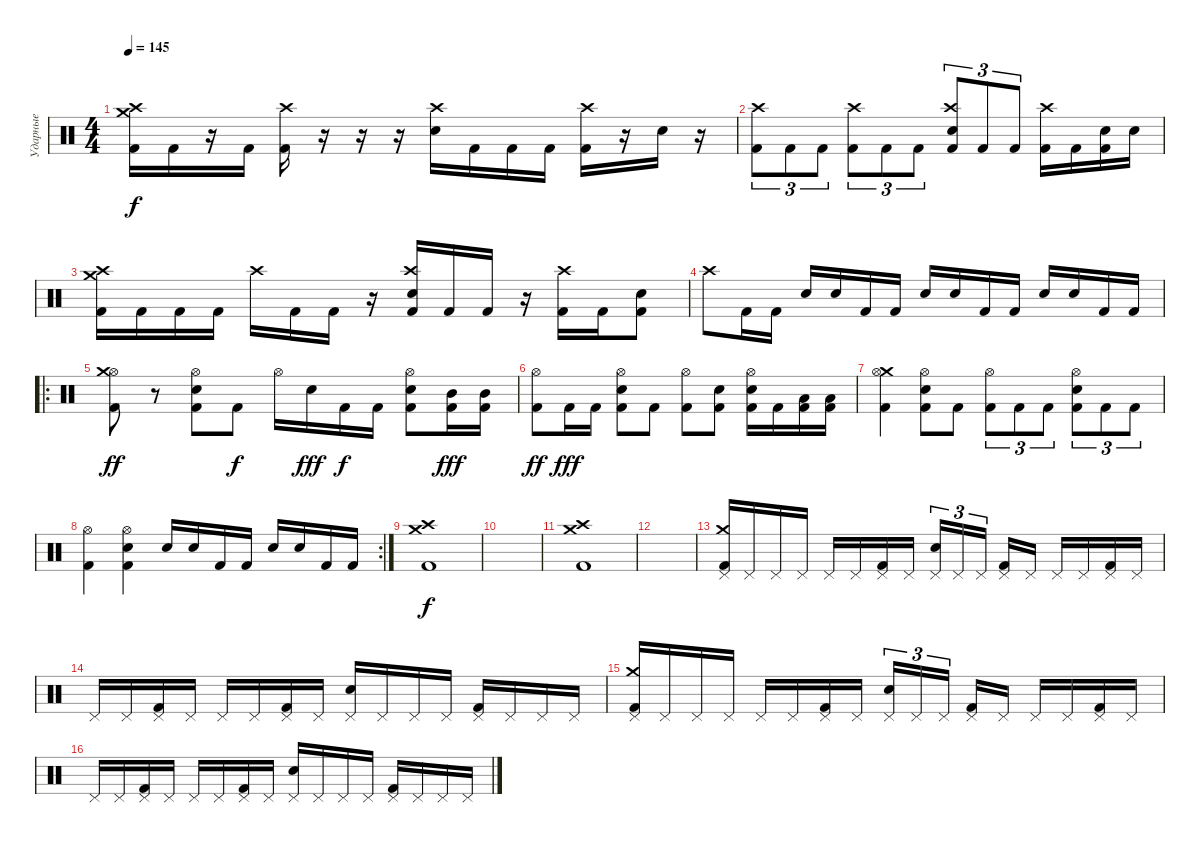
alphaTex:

\track ("Ударные" "Ударные") {instrument percussion}
\staff {score}
\articulation defaults
\ts (4 4)
\tempo 145
\clef neutral
\ks c
("Kick (hit) 2" "Crash medium (hit)" "Crash high (hit)").16{dy f} "Kick (hit) 2".16 r.16 "Kick (hit) 2".16 ("Kick (hit) 2" "Crash high (hit)").16 r.16 r.16 r.16 ("Snare (hit) 2" "Crash high (hit)").16 "Kick (hit) 2".16 "Kick (hit) 2".16 "Kick (hit) 2".16 ("Kick (hit) 2" "Crash high (hit)").16 r.16 "Snare (hit) 2".16 r.16 |
("Crash high (hit)" "Kick (hit) 2").8{tu (3 2)} "Kick (hit) 2".8{tu (3 2)} "Kick (hit) 2".8{tu (3 2)} ("Crash high (hit)" "Kick (hit) 2").8{tu (3 2)} "Kick (hit) 2".8{tu (3 2)} "Kick (hit) 2".8{tu (3 2)} ("Crash high (hit)" "Snare (hit) 2" "Kick (hit) 2").8{tu (3 2)} "Kick (hit) 2".8{tu (3 2)} "Kick (hit) 2".8{tu (3 2)} ("Crash high (hit)" "Kick (hit) 2").16 "Kick (hit) 2".16 ("Snare (hit) 2" "Kick (hit) 2").16 "Snare (hit) 2".16 |
("Crash high (hit)" "Crash medium (hit)" "Kick (hit) 2").16 "Kick (hit) 2".16 "Kick (hit) 2".16 "Kick (hit) 2".16 "Crash high (hit)".16 "Kick (hit) 2".16 "Kick (hit) 2".16 r.16 ("Crash high (hit)" "Snare (hit) 2" "Kick (hit) 2").16 "Kick (hit) 2".16 "Kick (hit) 2".16 r.16 ("Crash high (hit)" "Kick (hit) 2").16 "Kick (hit) 2".16 ("Electric Snare (hit)" "Kick (hit) 2").8 |
"Crash high (hit)".8 "Kick (hit) 2".16 "Kick (hit) 2".16 "Electric Snare (hit)".16 "Electric Snare (hit)".16 "Kick (hit) 2".16 "Kick (hit) 2".16 "Electric Snare (hit)".16 "Electric Snare (hit)".16 "Kick (hit) 2".16 "Kick (hit) 2".16 "Electric Snare (hit)".16 "Electric Snare (hit)".16 "Kick (hit) 2".16 "Kick (hit) 2".16 |
\ro
("Hi-Hat (open)" "Crash medium (hit)" "Kick (hit) 2").8{dy ff} r.8 ("Hi-Hat (open)" "Snare (hit) 2" "Kick (hit) 2").8 "Kick (hit) 2".8{dy f} "Hi-Hat (open)".16 "Electric Snare (hit)".16{dy fff} "Kick (hit) 2".16{dy f} "Kick (hit) 2".16 ("Hi-Hat (open)" "Snare (hit) 2" "Kick (hit) 2").8 ("Mid Tom (hit)" "Kick (hit) 2").16{dy fff} ("Mid Tom (hit)" "Kick (hit) 2").16 |
("Hi-Hat (open)" "Kick (hit) 2").8{dy ff} "Kick (hit) 2".16{dy fff} "Kick (hit) 2".16 ("Hi-Hat (open)" "Snare (hit) 2" "Kick (hit) 2").8 "Kick (hit) 2".8 ("Hi-Hat (open)" "Kick (hit) 2").8 ("Electric Snare (hit)" "Kick (hit) 2").8 ("Hi-Hat (open)" "Snare (hit) 2" "Kick (hit) 2").16 "Kick (hit) 2".16 ("Low Tom (hit)" "Kick (hit) 2").16 ("Low Tom (hit)" "Kick (hit) 2").16 |
("Crash medium (hit)" "Hi-Hat (open)" "Kick (hit) 2").4 ("Hi-Hat (open)" "Snare (hit) 2" "Kick (hit) 2").8 "Kick (hit) 2".8 ("Hi-Hat (open)" "Kick (hit) 2").8{tu (3 2)} "Kick (hit) 2".8{tu (3 2)} "Kick (hit) 2".8{tu (3 2)} ("Hi-Hat (open)" "Snare (hit) 2" "Kick (hit) 2").8{tu (3 2)} "Kick (hit) 2".8{tu (3 2)} "Kick (hit) 2".8{tu (3 2)} |
\rc 2
("Hi-Hat (open)" "Kick (hit) 2").4 ("Hi-Hat (open)" "Snare (hit) 2" "Kick (hit) 2").4 "Electric Snare (hit)".16 "Electric Snare (hit)".16 "Kick (hit) 2".16 "Kick (hit) 2".16 "Electric Snare (hit)".16 "Electric Snare (hit)".16 "Kick (hit) 2".16 "Kick (hit) 2".16 |
("Crash high (hit)" "Crash medium (hit)" "Kick (hit) 2").1{dy f} |
|
("Crash high (hit)" "Crash medium (hit)" "Kick (hit) 2").1 |
|
("Crash medium (hit)" "Pedal Hi-Hat (hit)" "Kick (hit) 2").16 "Pedal Hi-Hat (hit)".16 "Pedal Hi-Hat (hit)".16 "Pedal Hi-Hat (hit)".16 "Pedal Hi-Hat (hit)".16 "Pedal Hi-Hat (hit)".16 ("Pedal Hi-Hat (hit)" "Kick (hit) 2").16 "Pedal Hi-Hat (hit)".16 ("Hand Clap (hit)" "Pedal Hi-Hat (hit)").16{tu (3 2)} "Pedal Hi-Hat (hit)".16{tu (3 2)} "Pedal Hi-Hat (hit)".16{tu (3 2) beam splitsecondary} ("Pedal Hi-Hat (hit)" "Kick (hit) 2").16 "Pedal Hi-Hat (hit)".16 "Pedal Hi-Hat (hit)".16 "Pedal Hi-Hat (hit)".16 ("Pedal Hi-Hat (hit)" "Kick (hit) 2").16 "Pedal Hi-Hat (hit)".16 |
"Pedal Hi-Hat (hit)".16 "Pedal Hi-Hat (hit)".16 ("Pedal Hi-Hat (hit)" "Kick (hit) 2").16 "Pedal Hi-Hat (hit)".16 "Pedal Hi-Hat (hit)".16 "Pedal Hi-Hat (hit)".16 ("Pedal Hi-Hat (hit)" "Kick (hit) 2").16 "Pedal Hi-Hat (hit)".16 ("Hand Clap (hit)" "Pedal Hi-Hat (hit)").16 "Pedal Hi-Hat (hit)".16 "Pedal Hi-Hat (hit)".16 "Pedal Hi-Hat (hit)".16 ("Pedal Hi-Hat (hit)" "Kick (hit) 2").16 "Pedal Hi-Hat (hit)".16 "Pedal Hi-Hat (hit)".16 "Pedal Hi-Hat (hit)".16 |
("Crash medium (hit)" "Pedal Hi-Hat (hit)" "Kick (hit) 2").16 "Pedal Hi-Hat (hit)".16 "Pedal Hi-Hat (hit)".16 "Pedal Hi-Hat (hit)".16 "Pedal Hi-Hat (hit)".16 "Pedal Hi-Hat (hit)".16 ("Pedal Hi-Hat (hit)" "Kick (hit) 2").16 "Pedal Hi-Hat (hit)".16 ("Hand Clap (hit)" "Pedal Hi-Hat (hit)").16{tu (3 2)} "Pedal Hi-Hat (hit)".16{tu (3 2)} "Pedal Hi-Hat (hit)".16{tu (3 2) beam splitsecondary} ("Pedal Hi-Hat (hit)" "Kick (hit) 2").16 "Pedal Hi-Hat (hit)".16 "Pedal Hi-Hat (hit)".16 "Pedal Hi-Hat (hit)".16 ("Pedal Hi-Hat (hit)" "Kick (hit) 2").16 "Pedal Hi-Hat (hit)".16 |
"Pedal Hi-Hat (hit)".16 "Pedal Hi-Hat (hit)".16 ("Pedal Hi-Hat (hit)" "Kick (hit) 2").16 "Pedal Hi-Hat (hit)".16 "Pedal Hi-Hat (hit)".16 "Pedal Hi-Hat (hit)".16 ("Pedal Hi-Hat (hit)" "Kick (hit) 2").16 "Pedal Hi-Hat (hit)".16 ("Hand Clap (hit)" "Pedal Hi-Hat (hit)").16 "Pedal Hi-Hat (hit)".16 "Pedal Hi-Hat (hit)".16 "Pedal Hi-Hat (hit)".16 ("Pedal Hi-Hat (hit)" "Kick (hit) 2").16 "Pedal Hi-Hat (hit)".16 "Pedal Hi-Hat (hit)".16 "Pedal Hi-Hat (hit)".16
